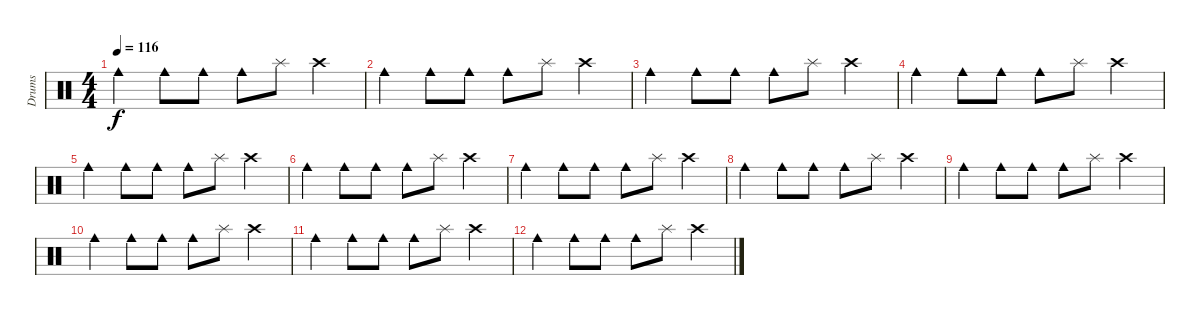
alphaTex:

\track ("Drums" "Drums") {instrument percussion}
\staff {score}
\articulation defaults
\ts (4 4)
\tempo 116
\clef neutral
\ks c "Cowbell medium (hit)".4{dy f} "Cowbell medium (hit)".8 "Cowbell medium (hit)".8 "Cowbell medium (hit)".8 "Splash (hit)".8 "Crash high (hit)".4
|
"Cowbell medium (hit)".4 "Cowbell medium (hit)".8 "Cowbell medium (hit)".8 "Cowbell medium (hit)".8 "Splash (hit)".8 "Crash high (hit)".4 |
"Cowbell medium (hit)".4 "Cowbell medium (hit)".8 "Cowbell medium (hit)".8 "Cowbell medium (hit)".8 "Splash (hit)".8 "Crash high (hit)".4 |
"Cowbell medium (hit)".4 "Cowbell medium (hit)".8 "Cowbell medium (hit)".8 "Cowbell medium (hit)".8 "Splash (hit)".8 "Crash high (hit)".4 |
"Cowbell medium (hit)".4 "Cowbell medium (hit)".8 "Cowbell medium (hit)".8 "Cowbell medium (hit)".8 "Splash (hit)".8 "Crash high (hit)".4 |
"Cowbell medium (hit)".4 "Cowbell medium (hit)".8 "Cowbell medium (hit)".8 "Cowbell medium (hit)".8 "Splash (hit)".8 "Crash high (hit)".4 |
"Cowbell medium (hit)".4 "Cowbell medium (hit)".8 "Cowbell medium (hit)".8 "Cowbell medium (hit)".8 "Splash (hit)".8 "Crash high (hit)".4 |
"Cowbell medium (hit)".4 "Cowbell medium (hit)".8 "Cowbell medium (hit)".8 "Cowbell medium (hit)".8 "Splash (hit)".8 "Crash high (hit)".4 |
"Cowbell medium (hit)".4 "Cowbell medium (hit)".8 "Cowbell medium (hit)".8 "Cowbell medium (hit)".8 "Splash (hit)".8 "Crash high (hit)".4 |
"Cowbell medium (hit)".4 "Cowbell medium (hit)".8 "Cowbell medium (hit)".8 "Cowbell medium (hit)".8 "Splash (hit)".8 "Crash high (hit)".4 |
"Cowbell medium (hit)".4 "Cowbell medium (hit)".8 "Cowbell medium (hit)".8 "Cowbell medium (hit)".8 "Splash (hit)".8 "Crash high (hit)".4 |
"Cowbell medium (hit)".4 "Cowbell medium (hit)".8 "Cowbell medium (hit)".8 "Cowbell medium (hit)".8 "Splash (hit)".8 "Crash high (hit)".4
